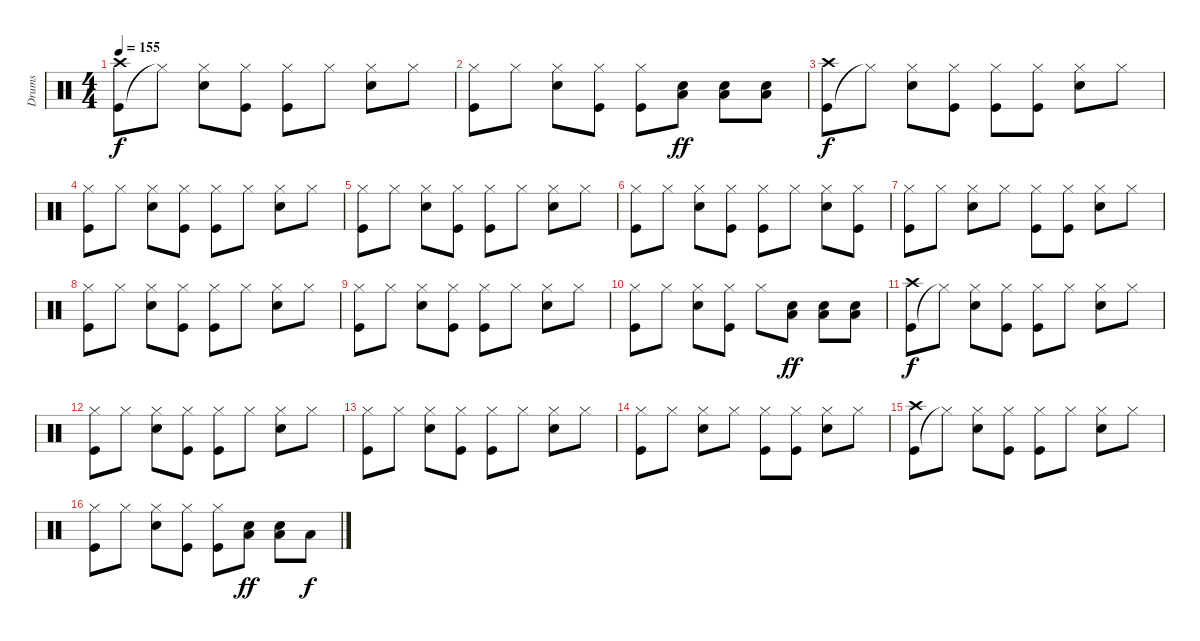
\track ("Drums" "Drums") {instrument percussion}
\staff {score}
\articulation defaults
\ts (4 4)
\tempo 155
\clef neutral
\ks c
("Kick (hit)" "Crash high (hit)").8{dy f} "Hi-Hat (closed)"{t}.8 ("Snare (hit) 2" "Hi-Hat (closed)").8 ("Kick (hit)" "Hi-Hat (closed)").8 ("Kick (hit)" "Hi-Hat (closed)").8 "Hi-Hat (closed)".8 ("Snare (hit) 2" "Hi-Hat (closed)").8 "Hi-Hat (closed)".8 |
("Kick (hit)" "Hi-Hat (closed)").8 "Hi-Hat (closed)".8 ("Snare (hit) 2" "Hi-Hat (closed)").8 ("Kick (hit)" "Hi-Hat (closed)").8 ("Kick (hit)" "Hi-Hat (closed)").8 ("Snare (hit) 2" "Low Floor Tom (hit)").8{dy ff} ("Snare (hit) 2" "Low Floor Tom (hit)").8 ("Snare (hit) 2" "Low Floor Tom (hit)").8 |
("Kick (hit)" "Crash high (hit)").8{dy f} "Hi-Hat (closed)"{t}.8 ("Snare (hit) 2" "Hi-Hat (closed)").8 ("Kick (hit)" "Hi-Hat (closed)").8 ("Kick (hit)" "Hi-Hat (closed)").8 ("Kick (hit)" "Hi-Hat (closed)").8 ("Snare (hit) 2" "Hi-Hat (closed)").8 "Hi-Hat (closed)".8 |
("Kick (hit)" "Hi-Hat (closed)").8 "Hi-Hat (closed)".8 ("Snare (hit) 2" "Hi-Hat (closed)").8 ("Kick (hit)" "Hi-Hat (closed)").8 ("Kick (hit)" "Hi-Hat (closed)").8 "Hi-Hat (closed)".8 ("Snare (hit) 2" "Hi-Hat (closed)").8 "Hi-Hat (closed)".8 |
("Kick (hit)" "Hi-Hat (closed)").8 "Hi-Hat (closed)".8 ("Snare (hit) 2" "Hi-Hat (closed)").8 ("Kick (hit)" "Hi-Hat (closed)").8 ("Kick (hit)" "Hi-Hat (closed)").8 "Hi-Hat (closed)".8 ("Snare (hit) 2" "Hi-Hat (closed)").8 "Hi-Hat (closed)".8 |
("Kick (hit)" "Hi-Hat (closed)").8 "Hi-Hat (closed)".8 ("Snare (hit) 2" "Hi-Hat (closed)").8 ("Kick (hit)" "Hi-Hat (closed)").8 ("Kick (hit)" "Hi-Hat (closed)").8 "Hi-Hat (closed)".8 ("Snare (hit) 2" "Hi-Hat (closed)").8 ("Kick (hit)" "Hi-Hat (closed)").8 |
("Kick (hit)" "Hi-Hat (closed)").8 "Hi-Hat (closed)".8 ("Snare (hit) 2" "Hi-Hat (closed)").8 "Hi-Hat (closed)".8 ("Kick (hit)" "Hi-Hat (closed)").8 ("Kick (hit)" "Hi-Hat (closed)").8 ("Snare (hit) 2" "Hi-Hat (closed)").8 "Hi-Hat (closed)".8 |
("Kick (hit)" "Hi-Hat (closed)").8 "Hi-Hat (closed)".8 ("Snare (hit) 2" "Hi-Hat (closed)").8 ("Kick (hit)" "Hi-Hat (closed)").8 ("Kick (hit)" "Hi-Hat (closed)").8 "Hi-Hat (closed)".8 ("Snare (hit) 2" "Hi-Hat (closed)").8 "Hi-Hat (closed)".8 |
("Kick (hit)" "Hi-Hat (closed)").8 "Hi-Hat (closed)".8 ("Snare (hit) 2" "Hi-Hat (closed)").8 ("Kick (hit)" "Hi-Hat (closed)").8 ("Kick (hit)" "Hi-Hat (closed)").8 "Hi-Hat (closed)".8 ("Snare (hit) 2" "Hi-Hat (closed)").8 "Hi-Hat (closed)".8 |
("Kick (hit)" "Hi-Hat (closed)").8 "Hi-Hat (closed)".8 ("Snare (hit) 2" "Hi-Hat (closed)").8 ("Kick (hit)" "Hi-Hat (closed)").8 "Hi-Hat (closed)".8 ("Snare (hit) 2" "Low Floor Tom (hit)").8{dy ff} ("Snare (hit) 2" "Low Floor Tom (hit)").8 ("Snare (hit) 2" "Low Floor Tom (hit)").8 |
("Kick (hit)" "Crash high (hit)").8{dy f} "Hi-Hat (closed)"{t}.8 ("Snare (hit) 2" "Hi-Hat (closed)").8 ("Kick (hit)" "Hi-Hat (closed)").8 ("Kick (hit)" "Hi-Hat (closed)").8 "Hi-Hat (closed)".8 ("Snare (hit) 2" "Hi-Hat (closed)").8 "Hi-Hat (closed)".8 |
("Kick (hit)" "Hi-Hat (closed)").8 "Hi-Hat (closed)".8 ("Snare (hit) 2" "Hi-Hat (closed)").8 ("Kick (hit)" "Hi-Hat (closed)").8 ("Kick (hit)" "Hi-Hat (closed)").8 "Hi-Hat (closed)".8 ("Snare (hit) 2" "Hi-Hat (closed)").8 "Hi-Hat (closed)".8 |
("Kick (hit)" "Hi-Hat (closed)").8 "Hi-Hat (closed)".8 ("Snare (hit) 2" "Hi-Hat (closed)").8 ("Kick (hit)" "Hi-Hat (closed)").8 ("Kick (hit)" "Hi-Hat (closed)").8 "Hi-Hat (closed)".8 ("Snare (hit) 2" "Hi-Hat (closed)").8 "Hi-Hat (closed)".8 |
("Kick (hit)" "Hi-Hat (closed)").8 "Hi-Hat (closed)".8 ("Snare (hit) 2" "Hi-Hat (closed)").8 "Hi-Hat (closed)".8 ("Kick (hit)" "Hi-Hat (closed)").8 ("Kick (hit)" "Hi-Hat (closed)").8 ("Snare (hit) 2" "Hi-Hat (closed)").8 "Hi-Hat (closed)".8 |
("Kick (hit)" "Crash high (hit)").8 "Hi-Hat (closed)"{t}.8 ("Snare (hit) 2" "Hi-Hat (closed)").8 ("Kick (hit)" "Hi-Hat (closed)").8 ("Kick (hit)" "Hi-Hat (closed)").8 "Hi-Hat (closed)".8 ("Snare (hit) 2" "Hi-Hat (closed)").8 "Hi-Hat (closed)".8 |
("Kick (hit)" "Hi-Hat (closed)").8 "Hi-Hat (closed)".8 ("Snare (hit) 2" "Hi-Hat (closed)").8 ("Kick (hit)" "Hi-Hat (closed)").8 ("Kick (hit)" "Hi-Hat (closed)").8 ("Snare (hit) 2" "Low Floor Tom (hit)").8{dy ff} ("Snare (hit) 2" "Low Floor Tom (hit)").8 "Low Floor Tom (hit)".8{dy f}
